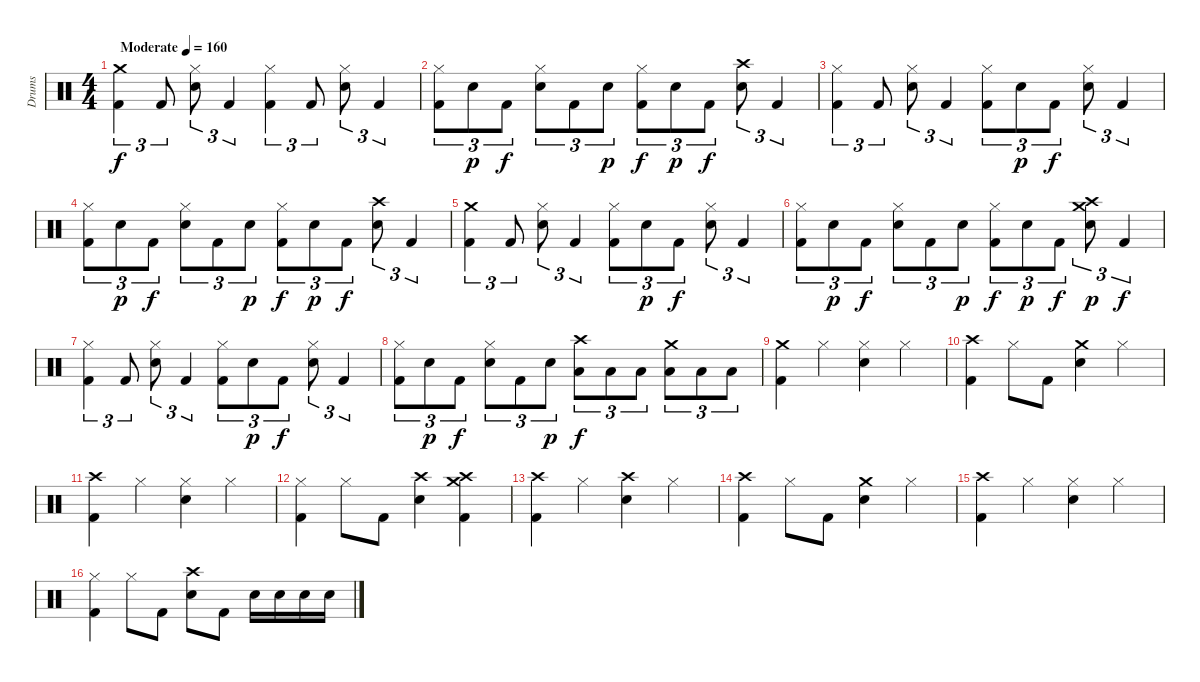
\track ("Drums" "Drums") {instrument percussion}
\staff {score}
\articulation defaults
\ts (4 4)
\tempo (160 "Moderate")
\clef neutral
\ks c
("Crash medium (hit)" "Kick (hit) 2").4{tu (3 2) dy f} "Kick (hit) 2".8{tu (3 2)} ("Hi-Hat (closed)" "Snare (hit) 2").8{tu (3 2)} "Kick (hit) 2".4{tu (3 2)} ("Hi-Hat (closed)" "Kick (hit) 2").4{tu (3 2)} "Kick (hit) 2".8{tu (3 2)} ("Hi-Hat (closed)" "Snare (hit) 2").8{tu (3 2)} "Kick (hit) 2".4{tu (3 2)} |
("Hi-Hat (closed)" "Kick (hit) 2").8{tu (3 2)} "Snare (hit) 2".8{tu (3 2) dy p} "Kick (hit) 2".8{tu (3 2) dy f} ("Hi-Hat (closed)" "Snare (hit) 2").8{tu (3 2)} "Kick (hit) 2".8{tu (3 2)} "Snare (hit) 2".8{tu (3 2) dy p} ("Hi-Hat (closed)" "Kick (hit) 2").8{tu (3 2) dy f} "Snare (hit) 2".8{tu (3 2) dy p} "Kick (hit) 2".8{tu (3 2) dy f} ("Crash high (hit)" "Snare (hit) 2").8{tu (3 2)} "Kick (hit) 2".4{tu (3 2)} |
("Hi-Hat (closed)" "Kick (hit) 2").4{tu (3 2)} "Kick (hit) 2".8{tu (3 2)} ("Hi-Hat (closed)" "Snare (hit) 2").8{tu (3 2)} "Kick (hit) 2".4{tu (3 2)} ("Hi-Hat (closed)" "Kick (hit) 2").8{tu (3 2)} "Snare (hit) 2".8{tu (3 2) dy p} "Kick (hit) 2".8{tu (3 2) dy f} ("Hi-Hat (closed)" "Snare (hit) 2").8{tu (3 2)} "Kick (hit) 2".4{tu (3 2)} |
("Hi-Hat (closed)" "Kick (hit) 2").8{tu (3 2)} "Snare (hit) 2".8{tu (3 2) dy p} "Kick (hit) 2".8{tu (3 2) dy f} ("Hi-Hat (closed)" "Snare (hit) 2").8{tu (3 2)} "Kick (hit) 2".8{tu (3 2)} "Snare (hit) 2".8{tu (3 2) dy p} ("Hi-Hat (closed)" "Kick (hit) 2").8{tu (3 2) dy f} "Snare (hit) 2".8{tu (3 2) dy p} "Kick (hit) 2".8{tu (3 2) dy f} ("Crash high (hit)" "Snare (hit) 2").8{tu (3 2)} "Kick (hit) 2".4{tu (3 2)} |
("Crash medium (hit)" "Kick (hit) 2").4{tu (3 2)} "Kick (hit) 2".8{tu (3 2)} ("Hi-Hat (closed)" "Snare (hit) 2").8{tu (3 2)} "Kick (hit) 2".4{tu (3 2)} ("Hi-Hat (closed)" "Kick (hit) 2").8{tu (3 2)} "Snare (hit) 2".8{tu (3 2) dy p} "Kick (hit) 2".8{tu (3 2) dy f} ("Hi-Hat (closed)" "Snare (hit) 2").8{tu (3 2)} "Kick (hit) 2".4{tu (3 2)} |
("Hi-Hat (closed)" "Kick (hit) 2").8{tu (3 2)} "Snare (hit) 2".8{tu (3 2) dy p} "Kick (hit) 2".8{tu (3 2) dy f} ("Hi-Hat (closed)" "Snare (hit) 2").8{tu (3 2)} "Kick (hit) 2".8{tu (3 2)} "Snare (hit) 2".8{tu (3 2) dy p} ("Hi-Hat (closed)" "Kick (hit) 2").8{tu (3 2) dy f} "Snare (hit) 2".8{tu (3 2) dy p} "Kick (hit) 2".8{tu (3 2) dy f} ("Crash medium (hit)" "Crash high (hit)" "Snare (hit) 2").8{tu (3 2) dy p} "Kick (hit) 2".4{tu (3 2) dy f} |
("Hi-Hat (closed)" "Kick (hit) 2").4{tu (3 2)} "Kick (hit) 2".8{tu (3 2)} ("Hi-Hat (closed)" "Snare (hit) 2").8{tu (3 2)} "Kick (hit) 2".4{tu (3 2)} ("Hi-Hat (closed)" "Kick (hit) 2").8{tu (3 2)} "Snare (hit) 2".8{tu (3 2) dy p} "Kick (hit) 2".8{tu (3 2) dy f} ("Hi-Hat (closed)" "Snare (hit) 2").8{tu (3 2)} "Kick (hit) 2".4{tu (3 2)} |
("Hi-Hat (closed)" "Kick (hit) 2").8{tu (3 2)} "Snare (hit) 2".8{tu (3 2) dy p} "Kick (hit) 2".8{tu (3 2) dy f} ("Hi-Hat (closed)" "Snare (hit) 2").8{tu (3 2)} "Kick (hit) 2".8{tu (3 2)} "Snare (hit) 2".8{tu (3 2) dy p} ("Crash high (hit)" "Low Tom (hit)").8{tu (3 2) dy f} "Low Tom (hit)".8{tu (3 2)} "Low Tom (hit)".8{tu (3 2)} ("Crash medium (hit)" "Low Floor Tom (hit)").8{tu (3 2)} "Low Floor Tom (hit)".8{tu (3 2)} "Low Floor Tom (hit)".8{tu (3 2)} |
("Crash medium (hit)" "Kick (hit) 2").4 "Hi-Hat (closed)".4 ("Hi-Hat (closed)" "Snare (hit) 2").4 "Hi-Hat (closed)".4 |
("Crash high (hit)" "Kick (hit) 2").4 "Hi-Hat (closed)".8 "Kick (hit) 2".8 ("Crash medium (hit)" "Snare (hit) 2").4 "Hi-Hat (closed)".4 |
("Crash high (hit)" "Kick (hit) 2").4 "Hi-Hat (closed)".4 ("Hi-Hat (closed)" "Snare (hit) 2").4 "Hi-Hat (closed)".4 |
("Hi-Hat (closed)" "Kick (hit) 2").4 "Hi-Hat (closed)".8 "Kick (hit) 2".8 ("Crash high (hit)" "Snare (hit) 2").4 ("Crash medium (hit)" "Crash high (hit)" "Kick (hit) 2").4 |
("Crash high (hit)" "Kick (hit) 2").4 "Hi-Hat (closed)".4 ("Crash high (hit)" "Snare (hit) 2").4 "Hi-Hat (closed)".4 |
("Crash high (hit)" "Kick (hit) 2").4 "Hi-Hat (closed)".8 "Kick (hit) 2".8 ("Crash medium (hit)" "Snare (hit) 2").4 "Hi-Hat (closed)".4 |
("Crash high (hit)" "Kick (hit) 2").4 "Hi-Hat (closed)".4 ("Hi-Hat (closed)" "Snare (hit) 2").4 "Hi-Hat (closed)".4 |
("Hi-Hat (closed)" "Kick (hit) 2").4 "Hi-Hat (closed)".8 "Kick (hit) 2".8 ("Crash high (hit)" "Snare (hit) 2").8 "Kick (hit) 2".8 "Snare (hit) 2".16 "Snare (hit) 2".16 "Snare (hit) 2".16 "Snare (hit) 2".16
